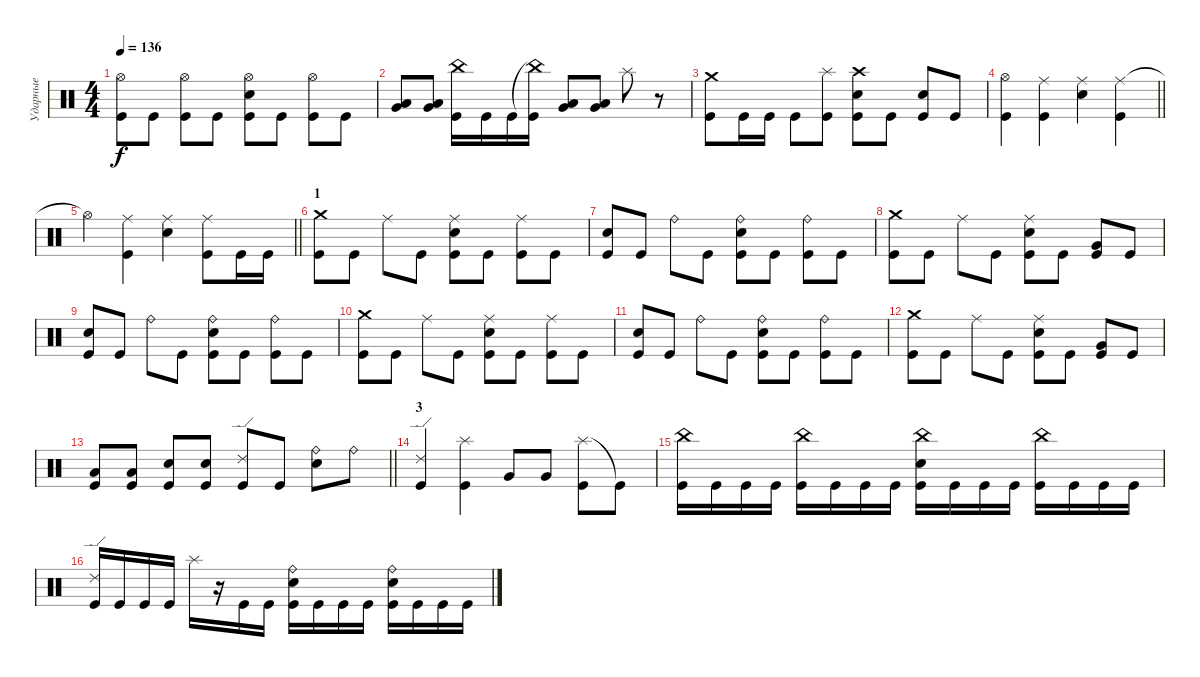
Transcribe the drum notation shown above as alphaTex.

\track ("Ударные" "Ударные") {instrument percussion}
\staff {score}
\articulation defaults
\ts (4 4)
\tempo 136
\clef neutral
\ks c
("Hi-Hat (open)" "Kick (hit)").8{dy f} "Kick (hit)".8 ("Hi-Hat (open)" "Kick (hit)").8 "Kick (hit)".8 ("Hi-Hat (open)" "Electric Snare (hit)" "Kick (hit)").8 "Kick (hit)".8 ("Hi-Hat (open)" "Kick (hit)").8 "Kick (hit)".8 |
("Very Low Tom (hit)" "Low Tom (hit)").8 ("Very Low Tom (hit)" "Low Tom (hit)").8 ("China (hit)" "Kick (hit)").16 "Kick (hit)".16 "Kick (hit)".16 ("China (hit)"{t} "Kick (hit)").16 ("Very Low Tom (hit)" "Low Tom (hit)").8 ("Very Low Tom (hit)" "Low Tom (hit)").8 "Splash (hit)".8 r.8 |
("Kick (hit)" "Crash medium (hit)").8 "Kick (hit)".16 "Kick (hit)".16 "Kick (hit)".8 ("Splash (hit)" "Kick (hit)").8 ("Crash high (hit)" "Electric Snare (hit)" "Kick (hit)").8 "Kick (hit)".8 ("Kick (hit)" "Electric Snare (hit)").8 "Kick (hit)".8 |
\barLineRight lightlight
("Hi-Hat (open)" "Kick (hit)").4 ("Ride (middle)" "Kick (hit)").4 ("Ride (middle)" "Electric Snare (hit)").4 ("Ride (middle)" "Kick (hit)").4 |
\section ("" " ")
\barLineRight lightlight "Hi-Hat (open)"{t}.4
("Ride (middle)" "Kick (hit)").4 ("Ride (middle)" "Electric Snare (hit)").4 ("Ride (middle)" "Kick (hit)").8 "Kick (hit)".16 "Kick (hit)".16 |
\section ("" "1")
("Crash medium (hit)" "Kick (hit)").8 "Kick (hit)".8 "Ride (middle)".8 "Kick (hit)".8 ("Ride (middle)" "Kick (hit)" "Electric Snare (hit)").8 "Kick (hit)".8 ("Ride (middle)" "Kick (hit)").8 "Kick (hit)".8 |
("Kick (hit)" "Electric Snare (hit)").8 "Kick (hit)".8 "Ride (bell)".8 "Kick (hit)".8 ("Electric Snare (hit)" "Kick (hit)" "Ride (bell)").8 "Kick (hit)".8 ("Ride (bell)" "Kick (hit)").8 "Kick (hit)".8 |
("Crash medium (hit)" "Kick (hit)").8 "Kick (hit)".8 "Ride (middle)".8 "Kick (hit)".8 ("Ride (middle)" "Kick (hit)" "Electric Snare (hit)").8 "Kick (hit)".8 ("Very Low Tom (hit)" "Kick (hit)").8 "Kick (hit)".8 |
("Kick (hit)" "Electric Snare (hit)").8 "Kick (hit)".8 "Ride (bell)".8 "Kick (hit)".8 ("Electric Snare (hit)" "Kick (hit)" "Ride (bell)").8 "Kick (hit)".8 ("Ride (bell)" "Kick (hit)").8 "Kick (hit)".8 |
("Crash medium (hit)" "Kick (hit)").8 "Kick (hit)".8 "Ride (middle)".8 "Kick (hit)".8 ("Ride (middle)" "Kick (hit)" "Electric Snare (hit)").8 "Kick (hit)".8 ("Ride (middle)" "Kick (hit)").8 "Kick (hit)".8 |
("Kick (hit)" "Electric Snare (hit)").8 "Kick (hit)".8 "Ride (bell)".8 "Kick (hit)".8 ("Electric Snare (hit)" "Kick (hit)" "Ride (bell)").8 "Kick (hit)".8 ("Ride (bell)" "Kick (hit)").8 "Kick (hit)".8 |
("Crash medium (hit)" "Kick (hit)").8 "Kick (hit)".8 "Ride (middle)".8 "Kick (hit)".8 ("Ride (middle)" "Kick (hit)" "Electric Snare (hit)").8 "Kick (hit)".8 ("Very Low Tom (hit)" "Kick (hit)").8 "Kick (hit)".8 |
\barLineRight lightlight
("Low Floor Tom (hit)" "Kick (hit)").8 ("Low Floor Tom (hit)" "Kick (hit)").8 ("Electric Snare (hit)" "Kick (hit)").8 ("Electric Snare (hit)" "Kick (hit)").8 ("Ride (edge) 2" "Kick (hit)").8 "Kick (hit)".8 ("Electric Snare (hit)" "Ride (bell)").8 "Ride (bell)".8 |
\section ("" "3")
("Ride (edge) 2" "Kick (hit)").4 ("Kick (hit)" "Splash (hit)").4 "Very Low Tom (hit)".8 "Very Low Tom (hit)".8 ("Splash (hit)" "Kick (hit)").8 "Kick (hit)"{t}.8 |
("China (hit)" "Kick (hit)").16 "Kick (hit)".16 "Kick (hit)".16 "Kick (hit)".16 ("China (hit)" "Kick (hit)").16 "Kick (hit)".16 "Kick (hit)".16 "Kick (hit)".16 ("Electric Snare (hit)" "China (hit)" "Kick (hit)").16 "Kick (hit)".16 "Kick (hit)".16 "Kick (hit)".16 ("China (hit)" "Kick (hit)").16 "Kick (hit)".16 "Kick (hit)".16 "Kick (hit)".16 |
("Ride (edge) 2" "Kick (hit)").16 "Kick (hit)".16 "Kick (hit)".16 "Kick (hit)".16 "Splash (hit)".16 r.16 "Kick (hit)".16 "Kick (hit)".16 ("Ride (bell)" "Electric Snare (hit)" "Kick (hit)").16 "Kick (hit)".16 "Kick (hit)".16 "Kick (hit)".16 ("Ride (bell)" "Electric Snare (hit)" "Kick (hit)").16 "Kick (hit)".16 "Kick (hit)".16 "Kick (hit)".16
